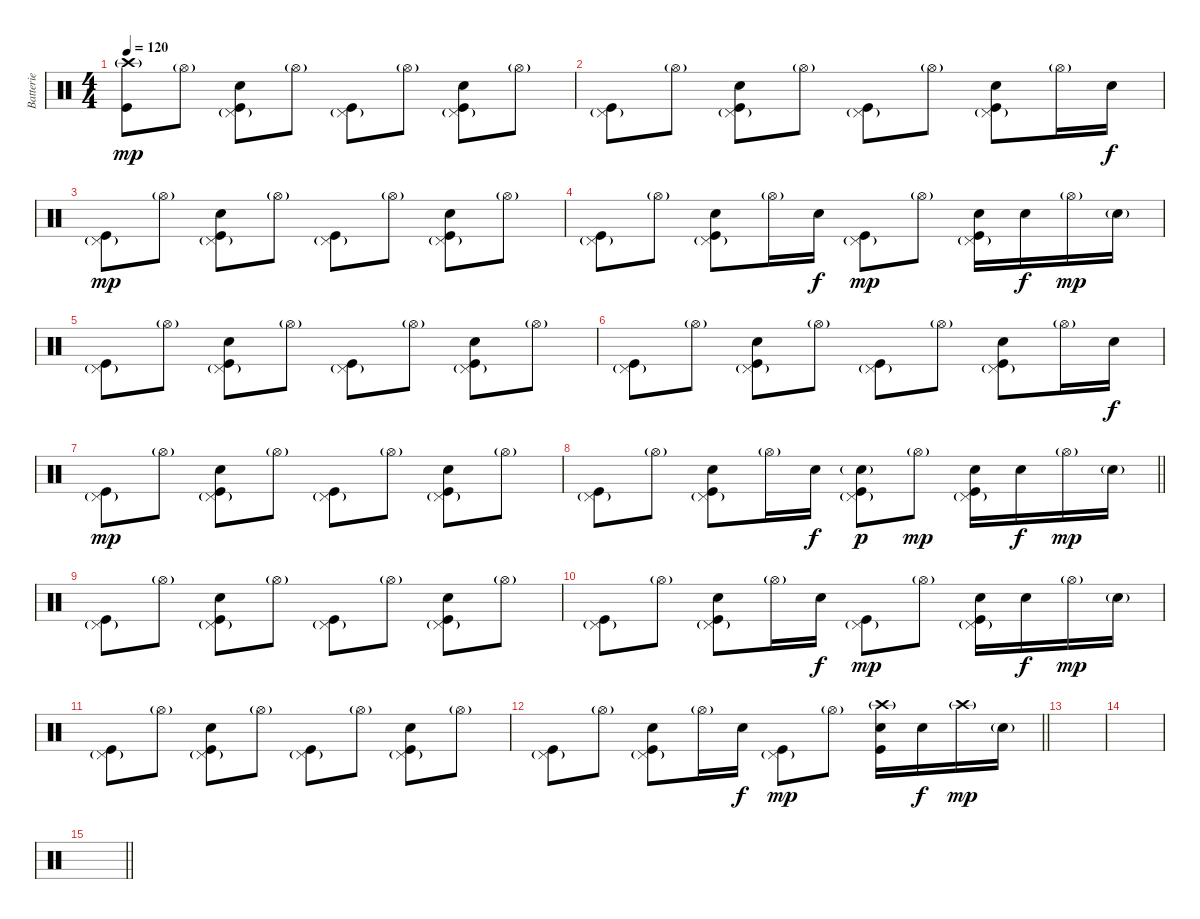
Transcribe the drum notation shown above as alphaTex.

\track ("Batterie" "Batterie") {instrument percussion}
\staff {score}
\articulation defaults
\ts (4 4)
\tempo 120
\clef neutral
\ks c
("Crash high (hit)"{g} "Kick (hit)").8{dy mp} "Hi-Hat (open)"{g}.8 ("Pedal Hi-Hat (hit)"{g} "Electric Snare (hit)" "Kick (hit)").8 "Hi-Hat (open)"{g}.8 ("Pedal Hi-Hat (hit)"{g} "Kick (hit)").8 "Hi-Hat (open)"{g}.8 ("Pedal Hi-Hat (hit)"{g} "Electric Snare (hit)" "Kick (hit)").8 "Hi-Hat (open)"{g}.8 |
("Pedal Hi-Hat (hit)"{g} "Kick (hit)").8 "Hi-Hat (open)"{g}.8 ("Pedal Hi-Hat (hit)"{g} "Electric Snare (hit)" "Kick (hit)").8 "Hi-Hat (open)"{g}.8 ("Pedal Hi-Hat (hit)"{g} "Kick (hit)").8 "Hi-Hat (open)"{g}.8 ("Pedal Hi-Hat (hit)"{g} "Electric Snare (hit)" "Kick (hit)").8 "Hi-Hat (open)"{g}.16 "Electric Snare (hit)".16{dy f} |
("Pedal Hi-Hat (hit)"{g} "Kick (hit)").8{dy mp} "Hi-Hat (open)"{g}.8 ("Pedal Hi-Hat (hit)"{g} "Electric Snare (hit)" "Kick (hit)").8 "Hi-Hat (open)"{g}.8 ("Pedal Hi-Hat (hit)"{g} "Kick (hit)").8 "Hi-Hat (open)"{g}.8 ("Pedal Hi-Hat (hit)"{g} "Electric Snare (hit)" "Kick (hit)").8 "Hi-Hat (open)"{g}.8 |
("Pedal Hi-Hat (hit)"{g} "Kick (hit)").8 "Hi-Hat (open)"{g}.8 ("Pedal Hi-Hat (hit)"{g} "Electric Snare (hit)" "Kick (hit)").8 "Hi-Hat (open)"{g}.16 "Electric Snare (hit)".16{dy f} ("Pedal Hi-Hat (hit)"{g} "Kick (hit)").8{dy mp} "Hi-Hat (open)"{g}.8 ("Pedal Hi-Hat (hit)"{g} "Electric Snare (hit)" "Kick (hit)").16 "Electric Snare (hit)".16{dy f} "Hi-Hat (open)"{g}.16{dy mp} "Electric Snare (hit)"{g}.16 |
("Pedal Hi-Hat (hit)"{g} "Kick (hit)").8 "Hi-Hat (open)"{g}.8 ("Pedal Hi-Hat (hit)"{g} "Electric Snare (hit)" "Kick (hit)").8 "Hi-Hat (open)"{g}.8 ("Pedal Hi-Hat (hit)"{g} "Kick (hit)").8 "Hi-Hat (open)"{g}.8 ("Pedal Hi-Hat (hit)"{g} "Electric Snare (hit)" "Kick (hit)").8 "Hi-Hat (open)"{g}.8 |
("Pedal Hi-Hat (hit)"{g} "Kick (hit)").8 "Hi-Hat (open)"{g}.8 ("Pedal Hi-Hat (hit)"{g} "Electric Snare (hit)" "Kick (hit)").8 "Hi-Hat (open)"{g}.8 ("Pedal Hi-Hat (hit)"{g} "Kick (hit)").8 "Hi-Hat (open)"{g}.8 ("Pedal Hi-Hat (hit)"{g} "Electric Snare (hit)" "Kick (hit)").8 "Hi-Hat (open)"{g}.16 "Electric Snare (hit)".16{dy f} |
("Pedal Hi-Hat (hit)"{g} "Kick (hit)").8{dy mp} "Hi-Hat (open)"{g}.8 ("Pedal Hi-Hat (hit)"{g} "Electric Snare (hit)" "Kick (hit)").8 "Hi-Hat (open)"{g}.8 ("Pedal Hi-Hat (hit)"{g} "Kick (hit)").8 "Hi-Hat (open)"{g}.8 ("Pedal Hi-Hat (hit)"{g} "Electric Snare (hit)" "Kick (hit)").8 "Hi-Hat (open)"{g}.8 |
\barLineRight lightlight
("Pedal Hi-Hat (hit)"{g} "Kick (hit)").8 "Hi-Hat (open)"{g}.8 ("Pedal Hi-Hat (hit)"{g} "Electric Snare (hit)" "Kick (hit)").8 "Hi-Hat (open)"{g}.16 "Electric Snare (hit)".16{dy f} ("Pedal Hi-Hat (hit)"{g} "Electric Snare (hit)"{g} "Kick (hit)").8{dy p} "Hi-Hat (open)"{g}.8{dy mp} ("Pedal Hi-Hat (hit)"{g} "Electric Snare (hit)" "Kick (hit)").16 "Electric Snare (hit)".16{dy f} "Hi-Hat (open)"{g}.16{dy mp} "Electric Snare (hit)"{g}.16 |
("Pedal Hi-Hat (hit)"{g} "Kick (hit)").8 "Hi-Hat (open)"{g}.8 ("Pedal Hi-Hat (hit)"{g} "Electric Snare (hit)" "Kick (hit)").8 "Hi-Hat (open)"{g}.8 ("Pedal Hi-Hat (hit)"{g} "Kick (hit)").8 "Hi-Hat (open)"{g}.8 ("Pedal Hi-Hat (hit)"{g} "Electric Snare (hit)" "Kick (hit)").8 "Hi-Hat (open)"{g}.8 |
("Pedal Hi-Hat (hit)"{g} "Kick (hit)").8 "Hi-Hat (open)"{g}.8 ("Pedal Hi-Hat (hit)"{g} "Electric Snare (hit)" "Kick (hit)").8 "Hi-Hat (open)"{g}.16 "Electric Snare (hit)".16{dy f} ("Pedal Hi-Hat (hit)"{g} "Kick (hit)").8{dy mp} "Hi-Hat (open)"{g}.8 ("Pedal Hi-Hat (hit)"{g} "Electric Snare (hit)" "Kick (hit)").16 "Electric Snare (hit)".16{dy f} "Hi-Hat (open)"{g}.16{dy mp} "Electric Snare (hit)"{g}.16 |
("Pedal Hi-Hat (hit)"{g} "Kick (hit)").8 "Hi-Hat (open)"{g}.8 ("Pedal Hi-Hat (hit)"{g} "Electric Snare (hit)" "Kick (hit)").8 "Hi-Hat (open)"{g}.8 ("Pedal Hi-Hat (hit)"{g} "Kick (hit)").8 "Hi-Hat (open)"{g}.8 ("Pedal Hi-Hat (hit)"{g} "Electric Snare (hit)" "Kick (hit)").8 "Hi-Hat (open)"{g}.8 |
\barLineRight lightlight
("Pedal Hi-Hat (hit)"{g} "Kick (hit)").8 "Hi-Hat (open)"{g}.8 ("Pedal Hi-Hat (hit)"{g} "Electric Snare (hit)" "Kick (hit)").8 "Hi-Hat (open)"{g}.16 "Electric Snare (hit)".16{dy f} ("Pedal Hi-Hat (hit)"{g} "Kick (hit)").8{dy mp} "Hi-Hat (open)"{g}.8 ("Crash high (hit)"{g} "Electric Snare (hit)" "Kick (hit)").16 "Electric Snare (hit)".16{dy f} "Crash high (hit)"{g}.16{dy mp} "Electric Snare (hit)"{g}.16 |
|
|
\barLineRight lightlight
